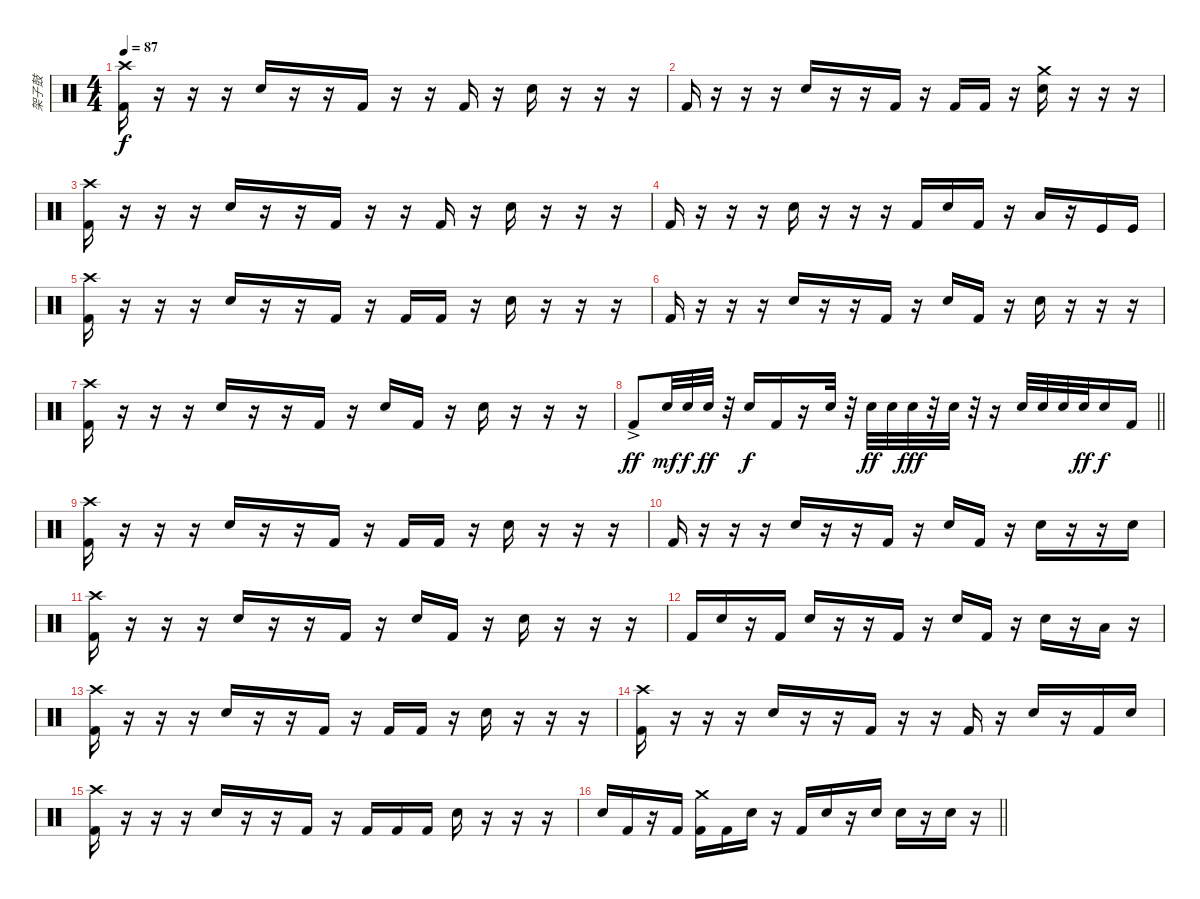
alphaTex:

\track ("架子鼓" "架子鼓") {instrument percussion}
\staff {score}
\articulation defaults
\ts (4 4)
\section ("" "")
\tempo 87
\clef neutral
\ks c
("Crash high (hit)" "Kick (hit) 2").16{dy f} r.16 r.16 r.16 "Electric Snare (hit)".16 r.16 r.16 "Kick (hit) 2".16 r.16 r.16 "Kick (hit) 2".16 r.16 "Electric Snare (hit)".16 r.16 r.16 r.16 |
"Kick (hit) 2".16 r.16 r.16 r.16 "Electric Snare (hit)".16 r.16 r.16 "Kick (hit) 2".16 r.16 "Kick (hit) 2".16 "Kick (hit) 2".16 r.16 ("Crash medium (hit)" "Electric Snare (hit)").16 r.16 r.16 r.16 |
("Crash high (hit)" "Kick (hit) 2").16 r.16 r.16 r.16 "Electric Snare (hit)".16 r.16 r.16 "Kick (hit) 2".16 r.16 r.16 "Kick (hit) 2".16 r.16 "Electric Snare (hit)".16 r.16 r.16 r.16 |
"Kick (hit) 2".16 r.16 r.16 r.16 "Electric Snare (hit)".16 r.16 r.16 r.16 "Kick (hit) 2".16 "Electric Snare (hit)".16 "Kick (hit) 2".16 r.16 "Low Floor Tom (hit)".16 r.16 "Kick (hit)".16 "Kick (hit)".16 |
("Crash high (hit)" "Kick (hit) 2").16 r.16 r.16 r.16 "Electric Snare (hit)".16 r.16 r.16 "Kick (hit) 2".16 r.16 "Kick (hit) 2".16 "Kick (hit) 2".16 r.16 "Electric Snare (hit)".16 r.16 r.16 r.16 |
"Kick (hit) 2".16 r.16 r.16 r.16 "Electric Snare (hit)".16 r.16 r.16 "Kick (hit) 2".16 r.16 "Electric Snare (hit)".16 "Kick (hit) 2".16 r.16 "Electric Snare (hit)".16 r.16 r.16 r.16 |
("Crash high (hit)" "Kick (hit) 2").16 r.16 r.16 r.16 "Electric Snare (hit)".16 r.16 r.16 "Kick (hit) 2".16 r.16 "Electric Snare (hit)".16 "Kick (hit) 2".16 r.16 "Electric Snare (hit)".16 r.16 r.16 r.16 |
\barLineRight lightlight "Kick (hit) 2"{ac}.8{dy ff} "Electric Snare (hit)".32{dy mf} "Electric Snare (hit)".32{dy f} "Electric Snare (hit)".32{dy ff}
r.32 "Electric Snare (hit)".16{dy f} "Kick (hit) 2".16 r.16 "Electric Snare (hit)".32 r.32 "Electric Snare (hit)".32{dy ff} "Electric Snare (hit)".32 "Electric Snare (hit)".32{dy fff} r.32 "Electric Snare (hit)".32 r.32 r.16 "Electric Snare (hit)".32 "Electric Snare (hit)".32 "Electric Snare (hit)".32 "Electric Snare (hit)".32{dy ff} "Electric Snare (hit)".16{dy f} "Kick (hit) 2".16 |
("Crash high (hit)" "Kick (hit) 2").16 r.16 r.16 r.16 "Electric Snare (hit)".16 r.16 r.16 "Kick (hit) 2".16 r.16 "Kick (hit) 2".16 "Kick (hit) 2".16 r.16 "Electric Snare (hit)".16 r.16 r.16 r.16 |
"Kick (hit) 2".16 r.16 r.16 r.16 "Electric Snare (hit)".16 r.16 r.16 "Kick (hit) 2".16 r.16 "Electric Snare (hit)".16 "Kick (hit) 2".16 r.16 "Electric Snare (hit)".16 r.16 r.16 "Electric Snare (hit)".16 |
("Crash high (hit)" "Kick (hit) 2").16 r.16 r.16 r.16 "Electric Snare (hit)".16 r.16 r.16 "Kick (hit) 2".16 r.16 "Electric Snare (hit)".16 "Kick (hit) 2".16 r.16 "Electric Snare (hit)".16 r.16 r.16 r.16 |
"Kick (hit) 2".16 "Electric Snare (hit)".16 r.16 "Kick (hit) 2".16 "Electric Snare (hit)".16 r.16 r.16 "Kick (hit) 2".16 r.16 "Electric Snare (hit)".16 "Kick (hit) 2".16 r.16 "Electric Snare (hit)".16 r.16 "Low Floor Tom (hit)".16 r.16 |
("Crash high (hit)" "Kick (hit) 2").16 r.16 r.16 r.16 "Electric Snare (hit)".16 r.16 r.16 "Kick (hit) 2".16 r.16 "Kick (hit) 2".16 "Kick (hit) 2".16 r.16 "Electric Snare (hit)".16 r.16 r.16 r.16 |
("Crash high (hit)" "Kick (hit) 2").16 r.16 r.16 r.16 "Electric Snare (hit)".16 r.16 r.16 "Kick (hit) 2".16 r.16 r.16 "Kick (hit) 2".16 r.16 "Electric Snare (hit)".16 r.16 "Kick (hit) 2".16 "Electric Snare (hit)".16 |
("Crash high (hit)" "Kick (hit) 2").16 r.16 r.16 r.16 "Electric Snare (hit)".16 r.16 r.16 "Kick (hit) 2".16 r.16 "Kick (hit) 2".16 "Kick (hit) 2".16 "Kick (hit) 2".16 "Electric Snare (hit)".16 r.16 r.16 r.16 |
\barLineRight lightlight "Electric Snare (hit)".16 "Kick (hit) 2".16
r.16 "Kick (hit) 2".16 ("Crash medium (hit)" "Kick (hit) 2").16 "Kick (hit) 2".16 "Electric Snare (hit)".16 r.16 "Kick (hit) 2".16 "Electric Snare (hit)".16 r.16 "Electric Snare (hit)".16 "Electric Snare (hit)".16 r.16 "Electric Snare (hit)".16 r.16
